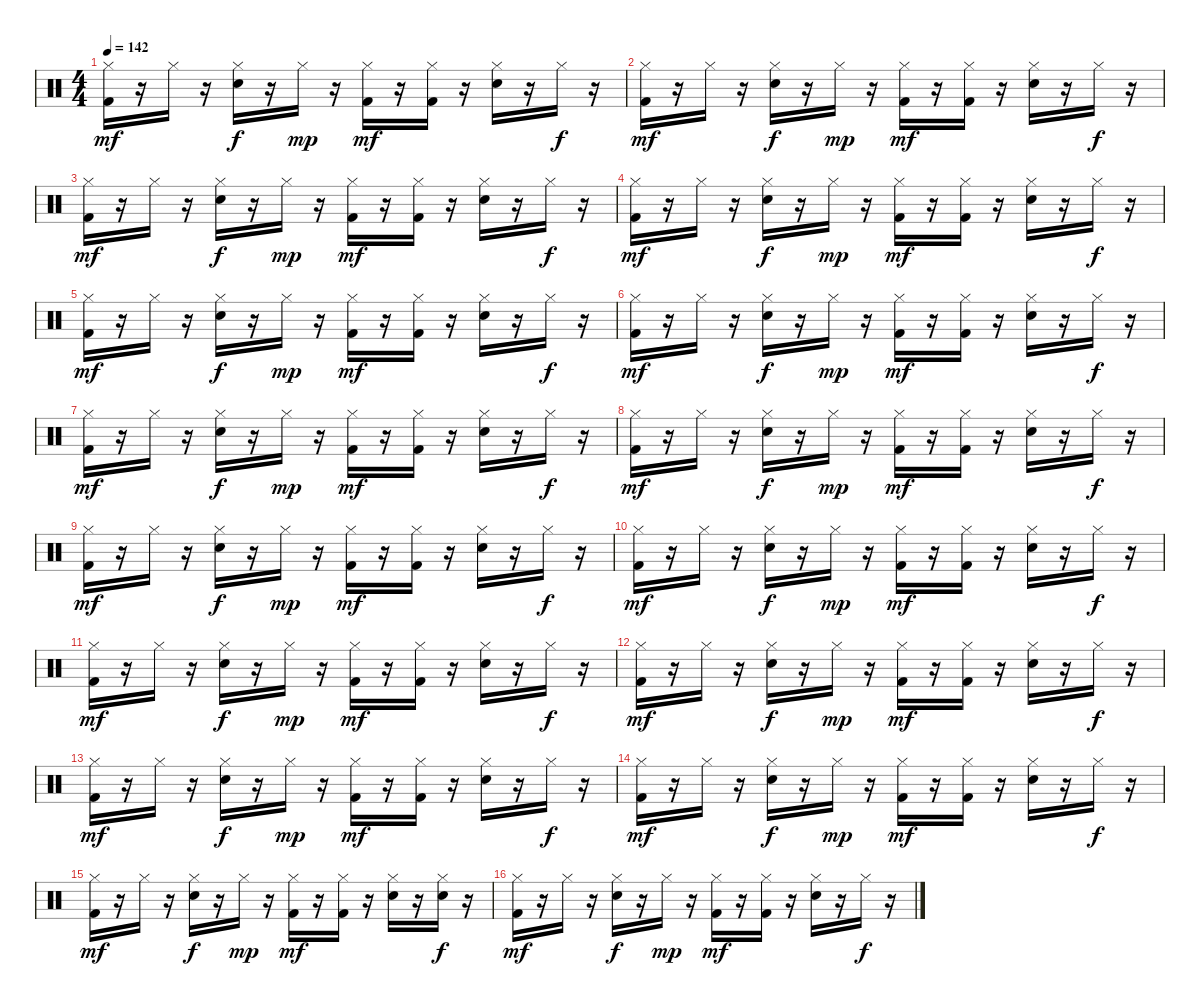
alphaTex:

\track "" {instrument percussion}
\staff {score}
\articulation defaults
\ts (4 4)
\tempo 142
\clef neutral
\ks c
("Kick (hit) 2" "Hi-Hat (closed)").16{dy mf} r.16 "Hi-Hat (closed)".16 r.16 ("Electric Snare (hit)" "Hi-Hat (closed)").16{dy f} r.16 "Hi-Hat (closed)".16{dy mp} r.16 ("Hi-Hat (closed)" "Kick (hit) 2").16{dy mf} r.16 ("Kick (hit) 2" "Hi-Hat (closed)").16 r.16 ("Hi-Hat (closed)" "Electric Snare (hit)").16 r.16 "Hi-Hat (closed)".16{dy f} r.16 |
("Hi-Hat (closed)" "Kick (hit) 2").16{dy mf} r.16 "Hi-Hat (closed)".16 r.16 ("Hi-Hat (closed)" "Electric Snare (hit)").16{dy f} r.16 "Hi-Hat (closed)".16{dy mp} r.16 ("Hi-Hat (closed)" "Kick (hit) 2").16{dy mf} r.16 ("Hi-Hat (closed)" "Kick (hit) 2").16 r.16 ("Electric Snare (hit)" "Hi-Hat (closed)").16 r.16 "Hi-Hat (closed)".16{dy f} r.16 |
("Hi-Hat (closed)" "Kick (hit) 2").16{dy mf} r.16 "Hi-Hat (closed)".16 r.16 ("Electric Snare (hit)" "Hi-Hat (closed)").16{dy f} r.16 "Hi-Hat (closed)".16{dy mp} r.16 ("Kick (hit) 2" "Hi-Hat (closed)").16{dy mf} r.16 ("Hi-Hat (closed)" "Kick (hit) 2").16 r.16 ("Hi-Hat (closed)" "Electric Snare (hit)").16 r.16 "Hi-Hat (closed)".16{dy f} r.16 |
("Kick (hit) 2" "Hi-Hat (closed)").16{dy mf} r.16 "Hi-Hat (closed)".16 r.16 ("Electric Snare (hit)" "Hi-Hat (closed)").16{dy f} r.16 "Hi-Hat (closed)".16{dy mp} r.16 ("Hi-Hat (closed)" "Kick (hit) 2").16{dy mf} r.16 ("Hi-Hat (closed)" "Kick (hit) 2").16 r.16 ("Hi-Hat (closed)" "Electric Snare (hit)").16 r.16 "Hi-Hat (closed)".16{dy f} r.16 |
("Kick (hit) 2" "Hi-Hat (closed)").16{dy mf} r.16 "Hi-Hat (closed)".16 r.16 ("Hi-Hat (closed)" "Electric Snare (hit)").16{dy f} r.16 "Hi-Hat (closed)".16{dy mp} r.16 ("Kick (hit) 2" "Hi-Hat (closed)").16{dy mf} r.16 ("Hi-Hat (closed)" "Kick (hit) 2").16 r.16 ("Hi-Hat (closed)" "Electric Snare (hit)").16 r.16 "Hi-Hat (closed)".16{dy f} r.16 |
("Kick (hit) 2" "Hi-Hat (closed)").16{dy mf} r.16 "Hi-Hat (closed)".16 r.16 ("Electric Snare (hit)" "Hi-Hat (closed)").16{dy f} r.16 "Hi-Hat (closed)".16{dy mp} r.16 ("Kick (hit) 2" "Hi-Hat (closed)").16{dy mf} r.16 ("Kick (hit) 2" "Hi-Hat (closed)").16 r.16 ("Hi-Hat (closed)" "Electric Snare (hit)").16 r.16 "Hi-Hat (closed)".16{dy f} r.16 |
("Hi-Hat (closed)" "Kick (hit) 2").16{dy mf} r.16 "Hi-Hat (closed)".16 r.16 ("Hi-Hat (closed)" "Electric Snare (hit)").16{dy f} r.16 "Hi-Hat (closed)".16{dy mp} r.16 ("Kick (hit) 2" "Hi-Hat (closed)").16{dy mf} r.16 ("Kick (hit) 2" "Hi-Hat (closed)").16 r.16 ("Electric Snare (hit)" "Hi-Hat (closed)").16 r.16 "Hi-Hat (closed)".16{dy f} r.16 |
("Hi-Hat (closed)" "Kick (hit) 2").16{dy mf} r.16 "Hi-Hat (closed)".16 r.16 ("Hi-Hat (closed)" "Electric Snare (hit)").16{dy f} r.16 "Hi-Hat (closed)".16{dy mp} r.16 ("Kick (hit) 2" "Hi-Hat (closed)").16{dy mf} r.16 ("Hi-Hat (closed)" "Kick (hit) 2").16 r.16 ("Hi-Hat (closed)" "Electric Snare (hit)").16 r.16 "Hi-Hat (closed)".16{dy f} r.16 |
("Hi-Hat (closed)" "Kick (hit) 2").16{dy mf} r.16 "Hi-Hat (closed)".16 r.16 ("Electric Snare (hit)" "Hi-Hat (closed)").16{dy f} r.16 "Hi-Hat (closed)".16{dy mp} r.16 ("Hi-Hat (closed)" "Kick (hit) 2").16{dy mf} r.16 ("Kick (hit) 2" "Hi-Hat (closed)").16 r.16 ("Hi-Hat (closed)" "Electric Snare (hit)").16 r.16 "Hi-Hat (closed)".16{dy f} r.16 |
("Kick (hit) 2" "Hi-Hat (closed)").16{dy mf} r.16 "Hi-Hat (closed)".16 r.16 ("Electric Snare (hit)" "Hi-Hat (closed)").16{dy f} r.16 "Hi-Hat (closed)".16{dy mp} r.16 ("Kick (hit) 2" "Hi-Hat (closed)").16{dy mf} r.16 ("Kick (hit) 2" "Hi-Hat (closed)").16 r.16 ("Electric Snare (hit)" "Hi-Hat (closed)").16 r.16 "Hi-Hat (closed)".16{dy f} r.16 |
("Hi-Hat (closed)" "Kick (hit) 2").16{dy mf} r.16 "Hi-Hat (closed)".16 r.16 ("Hi-Hat (closed)" "Electric Snare (hit)").16{dy f} r.16 "Hi-Hat (closed)".16{dy mp} r.16 ("Kick (hit) 2" "Hi-Hat (closed)").16{dy mf} r.16 ("Hi-Hat (closed)" "Kick (hit) 2").16 r.16 ("Electric Snare (hit)" "Hi-Hat (closed)").16 r.16 "Hi-Hat (closed)".16{dy f} r.16 |
("Hi-Hat (closed)" "Kick (hit) 2").16{dy mf} r.16 "Hi-Hat (closed)".16 r.16 ("Electric Snare (hit)" "Hi-Hat (closed)").16{dy f} r.16 "Hi-Hat (closed)".16{dy mp} r.16 ("Kick (hit) 2" "Hi-Hat (closed)").16{dy mf} r.16 ("Kick (hit) 2" "Hi-Hat (closed)").16 r.16 ("Hi-Hat (closed)" "Electric Snare (hit)").16 r.16 "Hi-Hat (closed)".16{dy f} r.16 |
("Kick (hit) 2" "Hi-Hat (closed)").16{dy mf} r.16 "Hi-Hat (closed)".16 r.16 ("Electric Snare (hit)" "Hi-Hat (closed)").16{dy f} r.16 "Hi-Hat (closed)".16{dy mp} r.16 ("Kick (hit) 2" "Hi-Hat (closed)").16{dy mf} r.16 ("Kick (hit) 2" "Hi-Hat (closed)").16 r.16 ("Hi-Hat (closed)" "Electric Snare (hit)").16 r.16 "Hi-Hat (closed)".16{dy f} r.16 |
("Hi-Hat (closed)" "Kick (hit) 2").16{dy mf} r.16 "Hi-Hat (closed)".16 r.16 ("Hi-Hat (closed)" "Electric Snare (hit)").16{dy f} r.16 "Hi-Hat (closed)".16{dy mp} r.16 ("Hi-Hat (closed)" "Kick (hit) 2").16{dy mf} r.16 ("Hi-Hat (closed)" "Kick (hit) 2").16 r.16 ("Hi-Hat (closed)" "Electric Snare (hit)").16 r.16 "Hi-Hat (closed)".16{dy f} r.16 |
("Hi-Hat (closed)" "Kick (hit) 2").16{dy mf} r.16 "Hi-Hat (closed)".16 r.16 ("Electric Snare (hit)" "Hi-Hat (closed)").16{dy f} r.16 "Hi-Hat (closed)".16{dy mp} r.16 ("Kick (hit) 2" "Hi-Hat (closed)").16{dy mf} r.16 ("Hi-Hat (closed)" "Kick (hit) 2").16 r.16 ("Electric Snare (hit)" "Hi-Hat (closed)").16 r.16 ("Electric Snare (hit)" "Hi-Hat (closed)").16{dy f} r.16 |
("Kick (hit) 2" "Hi-Hat (closed)").16{dy mf} r.16 "Hi-Hat (closed)".16 r.16 ("Hi-Hat (closed)" "Electric Snare (hit)").16{dy f} r.16 "Hi-Hat (closed)".16{dy mp} r.16 ("Kick (hit) 2" "Hi-Hat (closed)").16{dy mf} r.16 ("Kick (hit) 2" "Hi-Hat (closed)").16 r.16 ("Hi-Hat (closed)" "Electric Snare (hit)").16 r.16 "Hi-Hat (closed)".16{dy f} r.16
